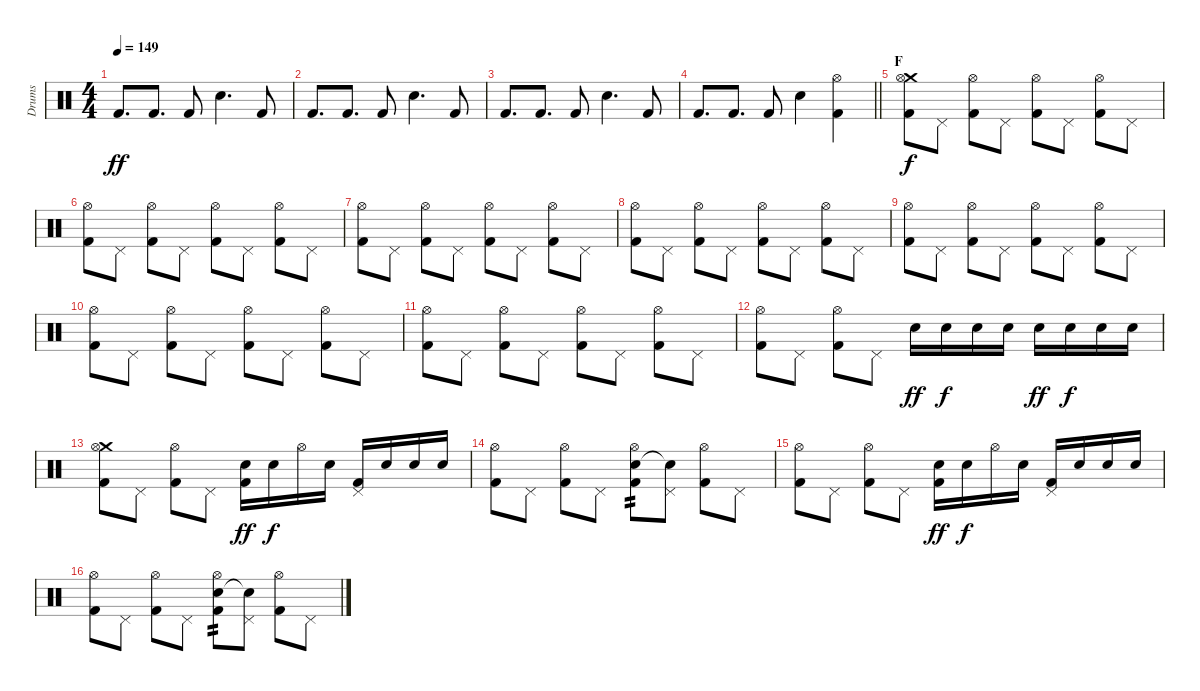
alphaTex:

\track ("Drums" "Drums") {instrument percussion}
\staff {score}
\articulation defaults
\ts (4 4)
\tempo 149
\clef neutral
\ks c "Kick (hit) 2".8{d dy ff} "Kick (hit) 2".8{d} "Kick (hit) 2".8 "Electric Snare (hit)".4{d} "Kick (hit) 2".8
|
"Kick (hit) 2".8{d} "Kick (hit) 2".8{d} "Kick (hit) 2".8 "Electric Snare (hit)".4{d} "Kick (hit) 2".8 |
"Kick (hit) 2".8{d} "Kick (hit) 2".8{d} "Kick (hit) 2".8 "Electric Snare (hit)".4{d} "Kick (hit) 2".8 |
\barLineRight lightlight "Kick (hit) 2".8{d} "Kick (hit) 2".8{d} "Kick (hit) 2".8 "Electric Snare (hit)".4
("Hi-Hat (open)" "Kick (hit) 2").4 |
\section ("" "F")
("Crash medium (hit)" "Hi-Hat (open)" "Kick (hit) 2").8{dy f} "Pedal Hi-Hat (hit)".8 ("Hi-Hat (open)" "Kick (hit) 2").8 "Pedal Hi-Hat (hit)".8 ("Hi-Hat (open)" "Kick (hit) 2").8 "Pedal Hi-Hat (hit)".8 ("Hi-Hat (open)" "Kick (hit) 2").8 "Pedal Hi-Hat (hit)".8 |
("Hi-Hat (open)" "Kick (hit) 2").8 "Pedal Hi-Hat (hit)".8 ("Hi-Hat (open)" "Kick (hit) 2").8 "Pedal Hi-Hat (hit)".8 ("Hi-Hat (open)" "Kick (hit) 2").8 "Pedal Hi-Hat (hit)".8 ("Hi-Hat (open)" "Kick (hit) 2").8 "Pedal Hi-Hat (hit)".8 |
("Hi-Hat (open)" "Kick (hit) 2").8 "Pedal Hi-Hat (hit)".8 ("Hi-Hat (open)" "Kick (hit) 2").8 "Pedal Hi-Hat (hit)".8 ("Hi-Hat (open)" "Kick (hit) 2").8 "Pedal Hi-Hat (hit)".8 ("Hi-Hat (open)" "Kick (hit) 2").8 "Pedal Hi-Hat (hit)".8 |
("Hi-Hat (open)" "Kick (hit) 2").8 "Pedal Hi-Hat (hit)".8 ("Hi-Hat (open)" "Kick (hit) 2").8 "Pedal Hi-Hat (hit)".8 ("Hi-Hat (open)" "Kick (hit) 2").8 "Pedal Hi-Hat (hit)".8 ("Hi-Hat (open)" "Kick (hit) 2").8 "Pedal Hi-Hat (hit)".8 |
("Hi-Hat (open)" "Kick (hit) 2").8 "Pedal Hi-Hat (hit)".8 ("Hi-Hat (open)" "Kick (hit) 2").8 "Pedal Hi-Hat (hit)".8 ("Hi-Hat (open)" "Kick (hit) 2").8 "Pedal Hi-Hat (hit)".8 ("Hi-Hat (open)" "Kick (hit) 2").8 "Pedal Hi-Hat (hit)".8 |
("Hi-Hat (open)" "Kick (hit) 2").8 "Pedal Hi-Hat (hit)".8 ("Hi-Hat (open)" "Kick (hit) 2").8 "Pedal Hi-Hat (hit)".8 ("Hi-Hat (open)" "Kick (hit) 2").8 "Pedal Hi-Hat (hit)".8 ("Hi-Hat (open)" "Kick (hit) 2").8 "Pedal Hi-Hat (hit)".8 |
("Hi-Hat (open)" "Kick (hit) 2").8 "Pedal Hi-Hat (hit)".8 ("Hi-Hat (open)" "Kick (hit) 2").8 "Pedal Hi-Hat (hit)".8 ("Hi-Hat (open)" "Kick (hit) 2").8 "Pedal Hi-Hat (hit)".8 ("Hi-Hat (open)" "Kick (hit) 2").8 "Pedal Hi-Hat (hit)".8 |
("Hi-Hat (open)" "Kick (hit) 2").8 "Pedal Hi-Hat (hit)".8 ("Hi-Hat (open)" "Kick (hit) 2").8 "Pedal Hi-Hat (hit)".8 "Electric Snare (hit)".16{dy ff} "Electric Snare (hit)".16{dy f} "Electric Snare (hit)".16 "Electric Snare (hit)".16 "Electric Snare (hit)".16{dy ff} "Electric Snare (hit)".16{dy f} "Electric Snare (hit)".16 "Electric Snare (hit)".16 |
("Crash medium (hit)" "Hi-Hat (open)" "Kick (hit) 2").8 "Pedal Hi-Hat (hit)".8 ("Hi-Hat (open)" "Kick (hit) 2").8 "Pedal Hi-Hat (hit)".8 ("Electric Snare (hit)" "Kick (hit) 2").16{dy ff} "Electric Snare (hit)".16{dy f} "Hi-Hat (open)".16 "Electric Snare (hit)".16 ("Pedal Hi-Hat (hit)" "Kick (hit) 2").16 "Electric Snare (hit)".16 "Electric Snare (hit)".16 "Electric Snare (hit)".16 |
("Hi-Hat (open)" "Kick (hit) 2").8 "Pedal Hi-Hat (hit)".8 ("Hi-Hat (open)" "Kick (hit) 2").8 "Pedal Hi-Hat (hit)".8 ("Hi-Hat (open)" "Electric Snare (hit)" "Kick (hit) 2").8{tp 2} ("Pedal Hi-Hat (hit)" "Snare (hit)"{t}).8 ("Hi-Hat (open)" "Kick (hit) 2").8 "Pedal Hi-Hat (hit)".8 |
("Hi-Hat (open)" "Kick (hit) 2").8 "Pedal Hi-Hat (hit)".8 ("Hi-Hat (open)" "Kick (hit) 2").8 "Pedal Hi-Hat (hit)".8 ("Electric Snare (hit)" "Kick (hit) 2").16{dy ff} "Electric Snare (hit)".16{dy f} "Hi-Hat (open)".16 "Electric Snare (hit)".16 ("Pedal Hi-Hat (hit)" "Kick (hit) 2").16 "Electric Snare (hit)".16 "Electric Snare (hit)".16 "Electric Snare (hit)".16 |
("Hi-Hat (open)" "Kick (hit) 2").8 "Pedal Hi-Hat (hit)".8 ("Hi-Hat (open)" "Kick (hit) 2").8 "Pedal Hi-Hat (hit)".8 ("Hi-Hat (open)" "Electric Snare (hit)" "Kick (hit) 2").8{tp 2} ("Pedal Hi-Hat (hit)" "Snare (hit)"{t}).8 ("Hi-Hat (open)" "Kick (hit) 2").8 "Pedal Hi-Hat (hit)".8
